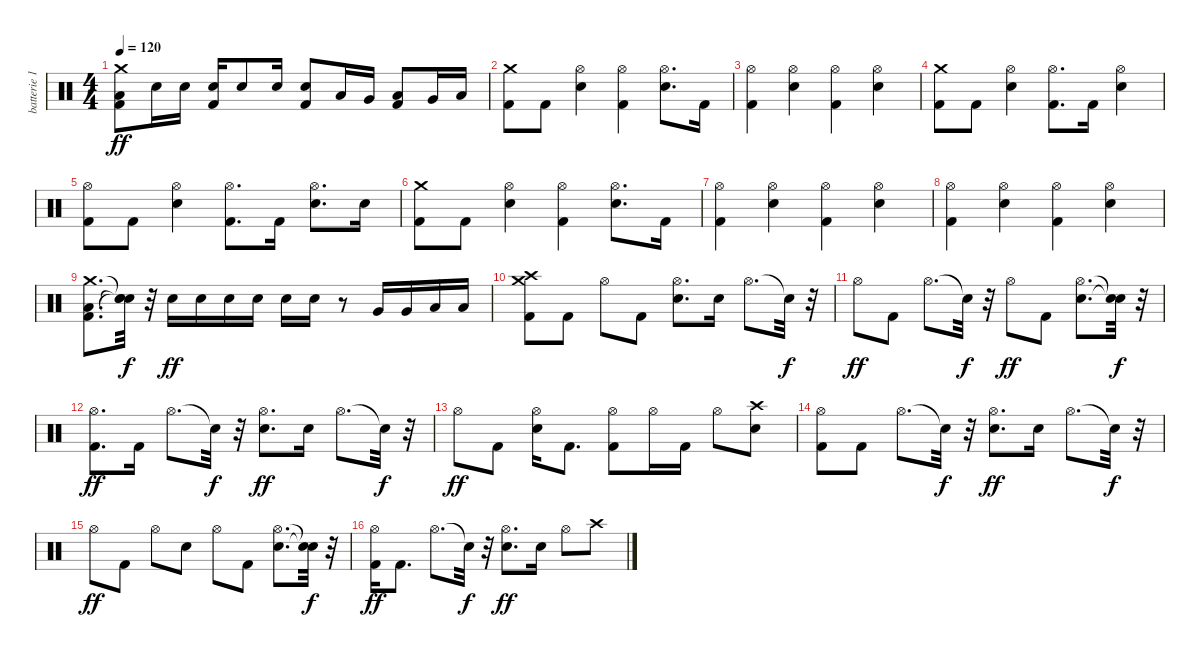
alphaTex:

\track ("batterie 1" "batterie 1") {instrument percussion}
\staff {score}
\articulation defaults
\ts (4 4)
\tempo 120
\clef neutral
\ks c
("Kick (hit) 2" "Low Floor Tom (hit)" "Crash medium (hit)").8{dy ff} "Electric Snare (hit)".16 "Electric Snare (hit)".16 ("Kick (hit) 2" "Electric Snare (hit)").16 "Electric Snare (hit)".8 "Electric Snare (hit)".16 ("Kick (hit) 2" "Electric Snare (hit)").8 "Low Tom (hit)".16 "Very Low Tom (hit)".16 ("Kick (hit) 2" "Low Floor Tom (hit)").8 "Very Low Tom (hit)".16 "Low Floor Tom (hit)".16 |
("Kick (hit) 2" "Crash medium (hit)").8 "Kick (hit) 2".8 ("Electric Snare (hit)" "Hi-Hat (open)").4 ("Kick (hit) 2" "Hi-Hat (open)").4 ("Electric Snare (hit)" "Hi-Hat (open)").8{d} "Kick (hit) 2".16 |
("Kick (hit) 2" "Hi-Hat (open)").4 ("Electric Snare (hit)" "Hi-Hat (open)").4 ("Kick (hit) 2" "Hi-Hat (open)").4 ("Electric Snare (hit)" "Hi-Hat (open)").4 |
("Kick (hit) 2" "Crash medium (hit)").8 "Kick (hit) 2".8 ("Electric Snare (hit)" "Hi-Hat (open)").4 ("Kick (hit) 2" "Hi-Hat (open)").8{d} "Kick (hit) 2".16 ("Electric Snare (hit)" "Hi-Hat (open)").4 |
("Kick (hit) 2" "Hi-Hat (open)").8 "Kick (hit) 2".8 ("Electric Snare (hit)" "Hi-Hat (open)").4 ("Kick (hit) 2" "Hi-Hat (open)").8{d} "Kick (hit) 2".16 ("Electric Snare (hit)" "Hi-Hat (open)").8{d} "Electric Snare (hit)".16 |
("Kick (hit) 2" "Crash medium (hit)").8 "Kick (hit) 2".8 ("Electric Snare (hit)" "Hi-Hat (open)").4 ("Kick (hit) 2" "Hi-Hat (open)").4 ("Electric Snare (hit)" "Hi-Hat (open)").8{d} "Kick (hit) 2".16 |
("Kick (hit) 2" "Hi-Hat (open)").4 ("Electric Snare (hit)" "Hi-Hat (open)").4 ("Kick (hit) 2" "Hi-Hat (open)").4 ("Electric Snare (hit)" "Hi-Hat (open)").4 |
("Kick (hit) 2" "Hi-Hat (open)").4 ("Electric Snare (hit)" "Hi-Hat (open)").4 ("Kick (hit) 2" "Hi-Hat (open)").4 ("Electric Snare (hit)" "Hi-Hat (open)").4 |
("Kick (hit) 2" "Low Floor Tom (hit)" "Crash medium (hit)").8{d} ("Snare (hit)"{t} "Snare (hit)"{t} "Snare (hit)"{t}).32{dy f} r.32 "Electric Snare (hit)".16{dy ff} "Electric Snare (hit)".16 "Electric Snare (hit)".16 "Electric Snare (hit)".16 "Electric Snare (hit)".16 "Electric Snare (hit)".16 r.8 "Very Low Tom (hit)".16 "Very Low Tom (hit)".16 "Low Floor Tom (hit)".16 "Low Floor Tom (hit)".16 |
("Kick (hit) 2" "Crash high (hit)" "Crash medium (hit)").8 "Kick (hit) 2".8 "Hi-Hat (open)".8 "Kick (hit) 2".8 ("Electric Snare (hit)" "Hi-Hat (open)").8{d} "Electric Snare (hit)".16 "Hi-Hat (open)".8{d} "Snare (hit)"{t}.32{dy f} r.32 |
"Hi-Hat (open)".8{dy ff} "Kick (hit) 2".8 "Hi-Hat (open)".8{d} "Snare (hit)"{t}.32{dy f} r.32 "Hi-Hat (open)".8{dy ff} "Kick (hit) 2".8 ("Electric Snare (hit)" "Hi-Hat (open)").8{d} ("Snare (hit)"{t} "Snare (hit)"{t}).32{dy f} r.32 |
("Kick (hit) 2" "Hi-Hat (open)").8{d dy ff} "Kick (hit) 2".16 "Hi-Hat (open)".8{d} "Snare (hit)"{t}.32{dy f} r.32 ("Electric Snare (hit)" "Hi-Hat (open)").8{d dy ff} "Electric Snare (hit)".16 "Hi-Hat (open)".8{d} "Snare (hit)"{t}.32{dy f} r.32 |
"Hi-Hat (open)".8{dy ff} "Kick (hit) 2".8 ("Electric Snare (hit)" "Hi-Hat (open)").16 "Kick (hit) 2".8{d} ("Kick (hit) 2" "Hi-Hat (open)").8 "Hi-Hat (open)".16 "Kick (hit) 2".16 "Hi-Hat (open)".8 ("Electric Snare (hit)" "Crash high (hit)").8 |
("Kick (hit) 2" "Hi-Hat (open)").8 "Kick (hit) 2".8 "Hi-Hat (open)".8{d} "Snare (hit)"{t}.32{dy f} r.32 ("Electric Snare (hit)" "Hi-Hat (open)").8{d dy ff} "Electric Snare (hit)".16 "Hi-Hat (open)".8{d} "Snare (hit)"{t}.32{dy f} r.32 |
"Hi-Hat (open)".8{dy ff} "Kick (hit) 2".8 "Hi-Hat (open)".8 "Electric Snare (hit)".8 "Hi-Hat (open)".8 "Kick (hit) 2".8 ("Electric Snare (hit)" "Hi-Hat (open)").8{d} ("Snare (hit)"{t} "Snare (hit)"{t}).32{dy f} r.32 |
("Kick (hit) 2" "Hi-Hat (open)").16{dy ff} "Kick (hit) 2".8{d} "Hi-Hat (open)".8{d} "Snare (hit)"{t}.32{dy f} r.32 ("Electric Snare (hit)" "Hi-Hat (open)").8{d dy ff} "Electric Snare (hit)".16 "Hi-Hat (open)".8 "Crash high (hit)".8
